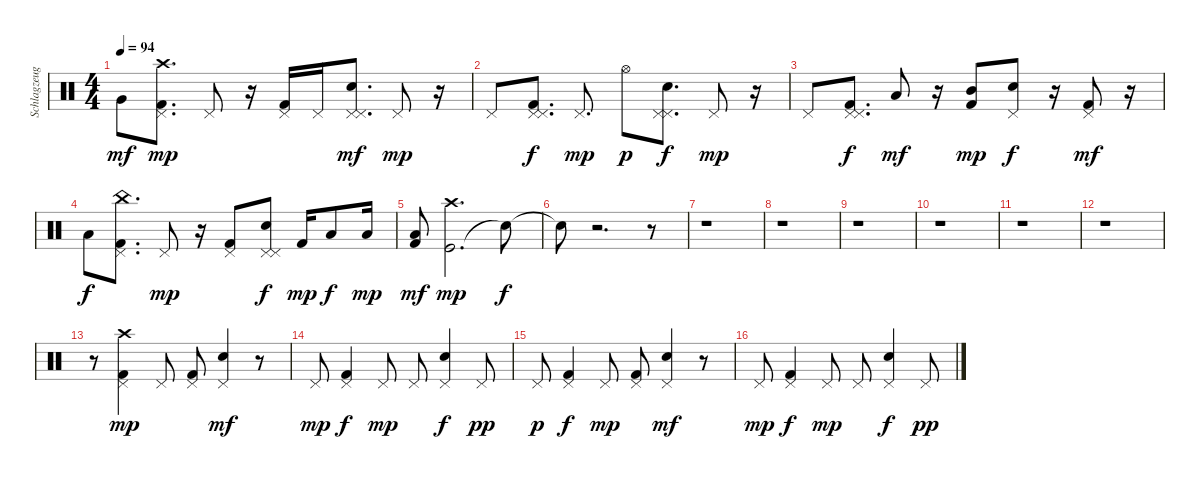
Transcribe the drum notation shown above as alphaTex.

\track ("Schlagzeug" "Schlagzeug") {instrument percussion}
\staff {score}
\articulation defaults
\ts (4 4)
\tempo 94
\clef neutral
\ks c "Very Low Tom (hit)".8{dy mf}
("Crash high (hit)" "Kick (hit) 2" "Pedal Hi-Hat (hit)").8{d dy mp} "Pedal Hi-Hat (hit)".8 r.16 ("Kick (hit) 2" "Pedal Hi-Hat (hit)").16 "Pedal Hi-Hat (hit)".16 ("Electric Snare (hit)" "Pedal Hi-Hat (hit)" "Pedal Hi-Hat (hit)").8{d dy mf} "Pedal Hi-Hat (hit)".8{dy mp} r.16 |
"Pedal Hi-Hat (hit)".8 ("Kick (hit) 2" "Pedal Hi-Hat (hit)" "Pedal Hi-Hat (hit)").8{d dy f} "Pedal Hi-Hat (hit)".8{d dy mp} "Hi-Hat (open)".8{dy p} ("Electric Snare (hit)" "Pedal Hi-Hat (hit)" "Pedal Hi-Hat (hit)").8{d dy f} "Pedal Hi-Hat (hit)".8{dy mp} r.16 |
"Pedal Hi-Hat (hit)".8 ("Pedal Hi-Hat (hit)" "Pedal Hi-Hat (hit)" "Kick (hit) 2").8{d dy f} "Low Tom (hit)".8{dy mf} r.16 ("Mid Tom (hit)" "Kick (hit) 2").8{dy mp} ("Electric Snare (hit)" "Pedal Hi-Hat (hit)").8{dy f} r.16 ("Pedal Hi-Hat (hit)" "Kick (hit) 2").8{dy mf} r.16 |
"Low Tom (hit)".8{dy f} ("China (hit)" "Kick (hit) 2" "Pedal Hi-Hat (hit)").8{d} "Pedal Hi-Hat (hit)".8{dy mp} r.16 ("Kick (hit) 2" "Pedal Hi-Hat (hit)").8 ("Electric Snare (hit)" "Pedal Hi-Hat (hit)" "Pedal Hi-Hat (hit)").8{dy f} "Kick (hit) 2".16{dy mp} "Low Tom (hit)".8{dy f} "Low Tom (hit)".16{dy mp} |
("Low Floor Tom (hit)" "Kick (hit) 2").8{dy mf} ("Kick (hit)" "Crash high (hit)").2{d dy mp} "Snare (hit)"{t}.8{dy f} |
"Snare (hit)"{t}.8 r.2{d} r.8 |
r.1 |
r.1 |
r.1 |
r.1 |
r.1 |
r.1 |
r.8 ("Crash high (hit)" "Kick (hit) 2" "Pedal Hi-Hat (hit)").4{dy mp} "Pedal Hi-Hat (hit)".8 ("Kick (hit) 2" "Pedal Hi-Hat (hit)").8 ("Electric Snare (hit)" "Pedal Hi-Hat (hit)").4{dy mf} r.8 |
"Pedal Hi-Hat (hit)".8{dy mp} ("Kick (hit) 2" "Pedal Hi-Hat (hit)").4{dy f} "Pedal Hi-Hat (hit)".8{dy mp} "Pedal Hi-Hat (hit)".8 ("Electric Snare (hit)" "Pedal Hi-Hat (hit)").4{dy f} "Pedal Hi-Hat (hit)".8{dy pp} |
"Pedal Hi-Hat (hit)".8{dy p} ("Kick (hit) 2" "Pedal Hi-Hat (hit)").4{dy f} "Pedal Hi-Hat (hit)".8{dy mp} ("Kick (hit) 2" "Pedal Hi-Hat (hit)").8 ("Electric Snare (hit)" "Pedal Hi-Hat (hit)").4{dy mf} r.8 |
"Pedal Hi-Hat (hit)".8{dy mp} ("Kick (hit) 2" "Pedal Hi-Hat (hit)").4{dy f} "Pedal Hi-Hat (hit)".8{dy mp} "Pedal Hi-Hat (hit)".8 ("Electric Snare (hit)" "Pedal Hi-Hat (hit)").4{dy f} "Pedal Hi-Hat (hit)".8{dy pp}
